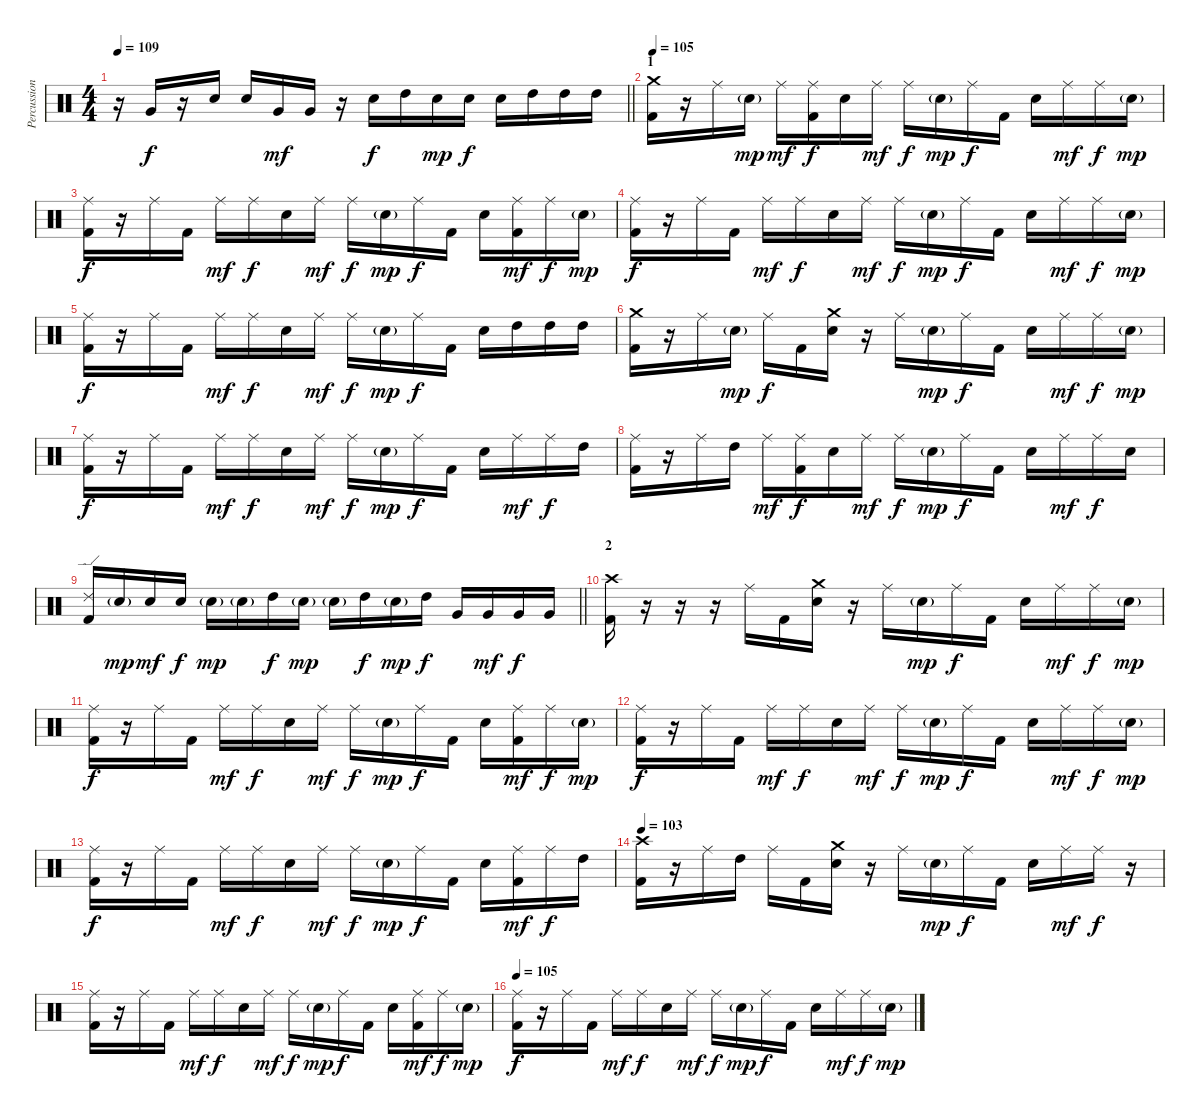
\track ("Percussion" "Percussion") {instrument percussion}
\staff {score}
\articulation defaults
\ts (4 4)
\tempo 109
\clef neutral
\barLineRight lightlight
\ks c
r.16{dy f} "Very Low Tom (hit)".16 r.16 "Snare (hit) 2".16 "Snare (hit) 2".16 "Very Low Tom (hit)".16{dy mf} "Very Low Tom (hit)".16 r.16 "Snare (hit) 2".16{dy f} "High Tom (hit)".16 "Snare (hit) 2".16{dy mp} "Snare (hit) 2".16{dy f} "Snare (hit) 2".16 "High Tom (hit)".16 "High Tom (hit)".16 "High Tom (hit)".16 |
\section ("" "1")
\tempo 105
("Crash medium (hit)" "Kick (hit) 2").16 r.16 "Ride (middle)".16 "Snare (hit) 2"{g}.16{dy mp} "Ride (middle)".16{dy mf} ("Ride (middle)" "Kick (hit) 2").16{dy f} "Snare (hit) 2".16 "Ride (middle)".16{dy mf} "Ride (middle)".16{dy f} "Snare (hit) 2"{g}.16{dy mp} "Ride (middle)".16{dy f} "Kick (hit) 2".16 "Snare (hit) 2".16 "Ride (middle)".16{dy mf} "Ride (middle)".16{dy f} "Snare (hit) 2"{g}.16{dy mp} |
("Ride (middle)" "Kick (hit) 2").16{dy f} r.16 "Ride (middle)".16 "Kick (hit) 2".16 "Ride (middle)".16{dy mf} "Ride (middle)".16{dy f} "Snare (hit) 2".16 "Ride (middle)".16{dy mf} "Ride (middle)".16{dy f} "Snare (hit) 2"{g}.16{dy mp} "Ride (middle)".16{dy f} "Kick (hit) 2".16 "Snare (hit) 2".16 ("Ride (middle)" "Kick (hit) 2").16{dy mf} "Ride (middle)".16{dy f} "Snare (hit) 2"{g}.16{dy mp} |
("Ride (middle)" "Kick (hit) 2").16{dy f} r.16 "Ride (middle)".16 "Kick (hit) 2".16 "Ride (middle)".16{dy mf} "Ride (middle)".16{dy f} "Snare (hit) 2".16 "Ride (middle)".16{dy mf} "Ride (middle)".16{dy f} "Snare (hit) 2"{g}.16{dy mp} "Ride (middle)".16{dy f} "Kick (hit) 2".16 "Snare (hit) 2".16 "Ride (middle)".16{dy mf} "Ride (middle)".16{dy f} "Snare (hit) 2"{g}.16{dy mp} |
("Ride (middle)" "Kick (hit) 2").16{dy f} r.16 "Ride (middle)".16 "Kick (hit) 2".16 "Ride (middle)".16{dy mf} "Ride (middle)".16{dy f} "Snare (hit) 2".16 "Ride (middle)".16{dy mf} "Ride (middle)".16{dy f} "Snare (hit) 2"{g}.16{dy mp} "Ride (middle)".16{dy f} "Kick (hit) 2".16 "Snare (hit) 2".16 "High Tom (hit)".16 "High Tom (hit)".16 "High Tom (hit)".16 |
("Crash medium (hit)" "Kick (hit) 2").16 r.16 "Ride (middle)".16 "Snare (hit) 2"{g}.16{dy mp} "Ride (middle)".16{dy f} "Kick (hit) 2".16 ("Crash medium (hit)" "Snare (hit) 2").16 r.16 "Ride (middle)".16 "Snare (hit) 2"{g}.16{dy mp} "Ride (middle)".16{dy f} "Kick (hit) 2".16 "Snare (hit) 2".16 "Ride (middle)".16{dy mf} "Ride (middle)".16{dy f} "Snare (hit) 2"{g}.16{dy mp} |
("Ride (middle)" "Kick (hit) 2").16{dy f} r.16 "Ride (middle)".16 "Kick (hit) 2".16 "Ride (middle)".16{dy mf} "Ride (middle)".16{dy f} "Snare (hit) 2".16 "Ride (middle)".16{dy mf} "Ride (middle)".16{dy f} "Snare (hit) 2"{g}.16{dy mp} "Ride (middle)".16{dy f} "Kick (hit) 2".16 "Snare (hit) 2".16 "Ride (middle)".16{dy mf} "Ride (middle)".16{dy f} "High Tom (hit)".16 |
("Ride (middle)" "Kick (hit) 2").16 r.16 "Ride (middle)".16 "High Tom (hit)".16 "Ride (middle)".16{dy mf} ("Ride (middle)" "Kick (hit) 2").16{dy f} "Snare (hit) 2".16 "Ride (middle)".16{dy mf} "Ride (middle)".16{dy f} "Snare (hit) 2"{g}.16{dy mp} "Ride (middle)".16{dy f} "Kick (hit) 2".16 "Snare (hit) 2".16 "Ride (middle)".16{dy mf} "Ride (middle)".16{dy f} "Snare (hit) 2".16 |
\barLineRight lightlight
("Ride (edge) 2" "Kick (hit) 2").16 "Snare (hit) 2"{g}.16{dy mp} "Snare (hit) 2".16{dy mf} "Snare (hit) 2".16{dy f} "Snare (hit) 2"{g}.16{dy mp} "Snare (hit) 2"{g}.16 "High Tom (hit)".16{dy f} "Snare (hit) 2"{g}.16{dy mp} "Snare (hit) 2"{g}.16 "High Tom (hit)".16{dy f} "Snare (hit) 2"{g}.16{dy mp} "High Tom (hit)".16{dy f} "Very Low Tom (hit)".16 "Very Low Tom (hit)".16{dy mf} "Very Low Tom (hit)".16{dy f} "Very Low Tom (hit)".16 |
\section ("" "2")
("Crash high (hit)" "Kick (hit) 2").16 r.16 r.16 r.16 "Ride (middle)".16 "Kick (hit) 2".16 ("Crash medium (hit)" "Snare (hit) 2").16 r.16 "Ride (middle)".16 "Snare (hit) 2"{g}.16{dy mp} "Ride (middle)".16{dy f} "Kick (hit) 2".16 "Snare (hit) 2".16 "Ride (middle)".16{dy mf} "Ride (middle)".16{dy f} "Snare (hit) 2"{g}.16{dy mp} |
("Ride (middle)" "Kick (hit) 2").16{dy f} r.16 "Ride (middle)".16 "Kick (hit) 2".16 "Ride (middle)".16{dy mf} "Ride (middle)".16{dy f} "Snare (hit) 2".16 "Ride (middle)".16{dy mf} "Ride (middle)".16{dy f} "Snare (hit) 2"{g}.16{dy mp} "Ride (middle)".16{dy f} "Kick (hit) 2".16 "Snare (hit) 2".16 ("Ride (middle)" "Kick (hit) 2").16{dy mf} "Ride (middle)".16{dy f} "Snare (hit) 2"{g}.16{dy mp} |
("Ride (middle)" "Kick (hit) 2").16{dy f} r.16 "Ride (middle)".16 "Kick (hit) 2".16 "Ride (middle)".16{dy mf} "Ride (middle)".16{dy f} "Snare (hit) 2".16 "Ride (middle)".16{dy mf} "Ride (middle)".16{dy f} "Snare (hit) 2"{g}.16{dy mp} "Ride (middle)".16{dy f} "Kick (hit) 2".16 "Snare (hit) 2".16 "Ride (middle)".16{dy mf} "Ride (middle)".16{dy f} "Snare (hit) 2"{g}.16{dy mp} |
("Ride (middle)" "Kick (hit) 2").16{dy f} r.16 "Ride (middle)".16 "Kick (hit) 2".16 "Ride (middle)".16{dy mf} "Ride (middle)".16{dy f} "Snare (hit) 2".16 "Ride (middle)".16{dy mf} "Ride (middle)".16{dy f} "Snare (hit) 2"{g}.16{dy mp} "Ride (middle)".16{dy f} "Kick (hit) 2".16 "Snare (hit) 2".16 ("Ride (middle)" "Kick (hit) 2").16{dy mf} "Ride (middle)".16{dy f} "High Tom (hit)".16 |
\tempo 103
("Crash high (hit)" "Kick (hit) 2").16 r.16 "Ride (middle)".16 "High Tom (hit)".16 "Ride (middle)".16 "Kick (hit) 2".16 ("Crash medium (hit)" "Snare (hit) 2").16 r.16 "Ride (middle)".16 "Snare (hit) 2"{g}.16{dy mp} "Ride (middle)".16{dy f} "Kick (hit) 2".16 "Snare (hit) 2".16 "Ride (middle)".16{dy mf} "Ride (middle)".16{dy f} r.16 |
("Ride (middle)" "Kick (hit) 2").16 r.16 "Ride (middle)".16 "Kick (hit) 2".16 "Ride (middle)".16{dy mf} "Ride (middle)".16{dy f} "Snare (hit) 2".16 "Ride (middle)".16{dy mf} "Ride (middle)".16{dy f} "Snare (hit) 2"{g}.16{dy mp} "Ride (middle)".16{dy f} "Kick (hit) 2".16 "Snare (hit) 2".16 ("Ride (middle)" "Kick (hit) 2").16{dy mf} "Ride (middle)".16{dy f} "Snare (hit) 2"{g}.16{dy mp} |
\tempo 105
("Ride (middle)" "Kick (hit) 2").16{dy f} r.16 "Ride (middle)".16 "Kick (hit) 2".16 "Ride (middle)".16{dy mf} "Ride (middle)".16{dy f} "Snare (hit) 2".16 "Ride (middle)".16{dy mf} "Ride (middle)".16{dy f} "Snare (hit) 2"{g}.16{dy mp} "Ride (middle)".16{dy f} "Kick (hit) 2".16 "Snare (hit) 2".16 "Ride (middle)".16{dy mf} "Ride (middle)".16{dy f} "Snare (hit) 2"{g}.16{dy mp}
